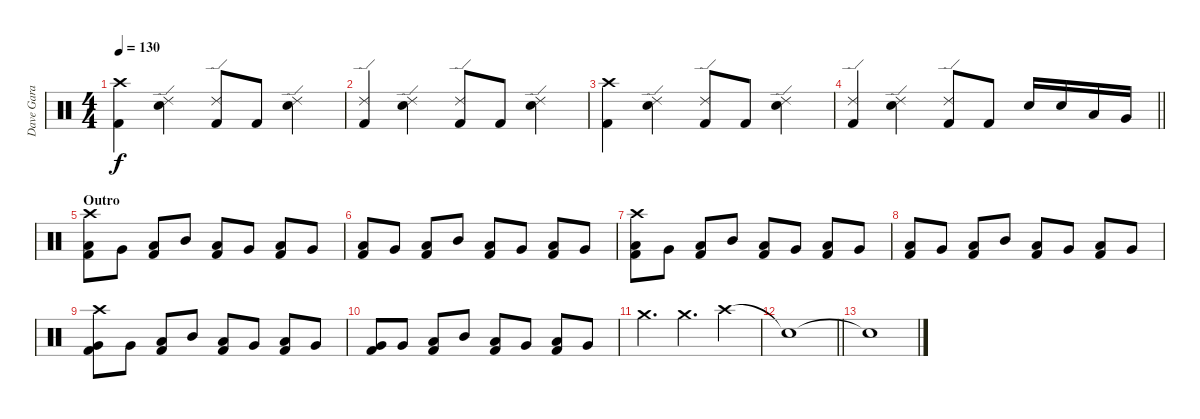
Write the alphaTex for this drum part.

\track ("Dave Gara" "Dave Gara") {instrument percussion}
\staff {score}
\articulation defaults
\ts (4 4)
\tempo 130
\clef neutral
\ks c
("Crash high (hit)" "Kick (hit) 2").4{dy f} ("Ride (edge) 2" "Electric Snare (hit)").4 ("Ride (edge) 2" "Kick (hit) 2").8 "Kick (hit) 2".8 ("Ride (edge) 2" "Electric Snare (hit)").4 |
("Ride (edge) 2" "Kick (hit) 2").4 ("Ride (edge) 2" "Electric Snare (hit)").4 ("Ride (edge) 2" "Kick (hit) 2").8 "Kick (hit) 2".8 ("Ride (edge) 2" "Electric Snare (hit)").4 |
("Crash high (hit)" "Kick (hit) 2").4 ("Ride (edge) 2" "Electric Snare (hit)").4 ("Ride (edge) 2" "Kick (hit) 2").8 "Kick (hit) 2".8 ("Ride (edge) 2" "Electric Snare (hit)").4 |
\barLineRight lightlight
("Ride (edge) 2" "Kick (hit) 2").4 ("Ride (edge) 2" "Electric Snare (hit)").4 ("Ride (edge) 2" "Kick (hit) 2").8 "Kick (hit) 2".8 "Electric Snare (hit)".16 "Electric Snare (hit)".16 "Low Tom (hit)".16 "Very Low Tom (hit)".16 |
\section ("" "Outro")
("Crash high (hit)" "Low Tom (hit)" "Kick (hit) 2").8 "Very Low Tom (hit)".8 ("Low Tom (hit)" "Kick (hit) 2").8 "Mid Tom (hit)".8 ("Low Tom (hit)" "Kick (hit) 2").8 "Very Low Tom (hit)".8 ("Low Tom (hit)" "Kick (hit) 2").8 "Very Low Tom (hit)".8 |
("Low Tom (hit)" "Kick (hit) 2").8 "Very Low Tom (hit)".8 ("Low Tom (hit)" "Kick (hit) 2").8 "Mid Tom (hit)".8 ("Low Tom (hit)" "Kick (hit) 2").8 "Very Low Tom (hit)".8 ("Low Tom (hit)" "Kick (hit) 2").8 "Very Low Tom (hit)".8 |
("Crash high (hit)" "Low Tom (hit)" "Kick (hit) 2").8 "Very Low Tom (hit)".8 ("Low Tom (hit)" "Kick (hit) 2").8 "Mid Tom (hit)".8 ("Low Tom (hit)" "Kick (hit) 2").8 "Very Low Tom (hit)".8 ("Low Tom (hit)" "Kick (hit) 2").8 "Very Low Tom (hit)".8 |
("Low Tom (hit)" "Kick (hit) 2").8 "Very Low Tom (hit)".8 ("Low Tom (hit)" "Kick (hit) 2").8 "Mid Tom (hit)".8 ("Low Tom (hit)" "Kick (hit) 2").8 "Very Low Tom (hit)".8 ("Low Tom (hit)" "Kick (hit) 2").8 "Very Low Tom (hit)".8 |
("Crash high (hit)" "Very Low Tom (hit)" "Kick (hit) 2").8 "Very Low Tom (hit)".8 ("Low Tom (hit)" "Kick (hit) 2").8 "Mid Tom (hit)".8 ("Low Tom (hit)" "Kick (hit) 2").8 "Very Low Tom (hit)".8 ("Low Tom (hit)" "Kick (hit) 2").8 "Very Low Tom (hit)".8 |
("Very Low Tom (hit)" "Kick (hit) 2").8 "Very Low Tom (hit)".8 ("Low Tom (hit)" "Kick (hit) 2").8 "Mid Tom (hit)".8 ("Low Tom (hit)" "Kick (hit) 2").8 "Very Low Tom (hit)".8 ("Low Tom (hit)" "Kick (hit) 2").8 "Very Low Tom (hit)".8 |
"Crash medium (hit)".4{d} "Crash medium (hit)".4{d} "Crash high (hit)".4 |
\barLineRight lightlight "Snare (hit)"{t}.1
|
"Snare (hit)"{t}.1
